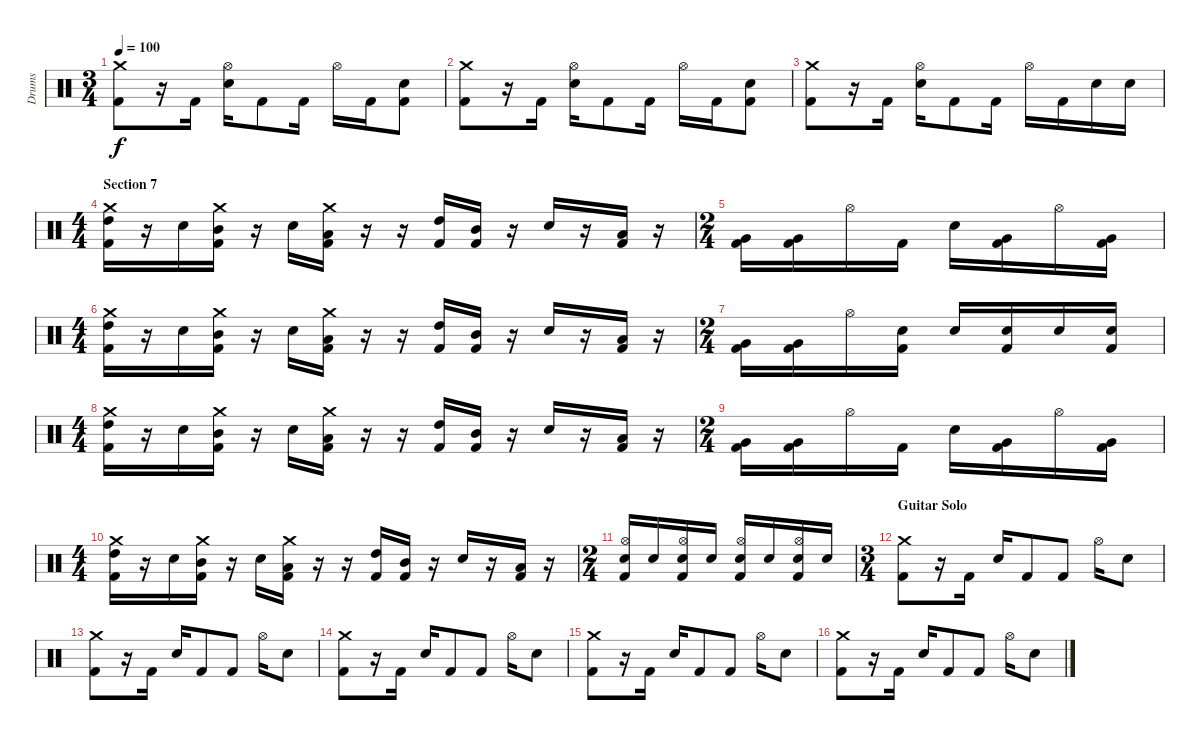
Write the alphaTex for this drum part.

\track ("Drums" "Drums") {instrument percussion}
\staff {score}
\articulation defaults
\ts (3 4)
\tempo 100
\clef neutral
\ks c
("Crash medium (hit)" "Kick (hit) 2").8{dy f} r.16 "Kick (hit) 2".16 ("Hi-Hat (open)" "Snare (hit) 2").16 "Kick (hit) 2".8 "Kick (hit) 2".16 "Hi-Hat (open)".16 "Kick (hit) 2".16 ("Snare (hit) 2" "Kick (hit) 2").8 |
("Crash medium (hit)" "Kick (hit) 2").8 r.16 "Kick (hit) 2".16 ("Hi-Hat (open)" "Snare (hit) 2").16 "Kick (hit) 2".8 "Kick (hit) 2".16 "Hi-Hat (open)".16 "Kick (hit) 2".16 ("Snare (hit) 2" "Kick (hit) 2").8 |
("Crash medium (hit)" "Kick (hit) 2").8 r.16 "Kick (hit) 2".16 ("Hi-Hat (open)" "Snare (hit) 2").16 "Kick (hit) 2".8 "Kick (hit) 2".16 "Hi-Hat (open)".16 "Kick (hit) 2".16 "Snare (hit) 2".16 "Snare (hit) 2".16 |
\ts (4 4)
\section ("" "Section 7")
("Crash medium (hit)" "High Tom (hit)" "Kick (hit) 2").16 r.16 "Snare (hit) 2".16 ("Crash medium (hit)" "Mid Tom (hit)" "Kick (hit) 2").16 r.16 "Snare (hit) 2".16 ("Crash medium (hit)" "Low Tom (hit)" "Kick (hit) 2").16 r.16 r.16 ("High Tom (hit)" "Kick (hit) 2").16 ("Mid Tom (hit)" "Kick (hit) 2").16 r.16 "Snare (hit) 2".16 r.16 ("Low Tom (hit)" "Kick (hit) 2").16 r.16 |
\ts (2 4)
("Very Low Tom (hit)" "Kick (hit) 2").16 ("Very Low Tom (hit)" "Kick (hit) 2").16 "Hi-Hat (open)".16 "Kick (hit) 2".16 "Snare (hit) 2".16 ("Very Low Tom (hit)" "Kick (hit) 2").16 "Hi-Hat (open)".16 ("Very Low Tom (hit)" "Kick (hit) 2").16 |
\ts (4 4)
("Crash medium (hit)" "High Tom (hit)" "Kick (hit) 2").16 r.16 "Snare (hit) 2".16 ("Crash medium (hit)" "Mid Tom (hit)" "Kick (hit) 2").16 r.16 "Snare (hit) 2".16 ("Crash medium (hit)" "Low Tom (hit)" "Kick (hit) 2").16 r.16 r.16 ("High Tom (hit)" "Kick (hit) 2").16 ("Mid Tom (hit)" "Kick (hit) 2").16 r.16 "Snare (hit) 2".16 r.16 ("Low Tom (hit)" "Kick (hit) 2").16 r.16 |
\ts (2 4)
("Very Low Tom (hit)" "Kick (hit) 2").16 ("Very Low Tom (hit)" "Kick (hit) 2").16 "Hi-Hat (open)".16 ("Snare (hit) 2" "Kick (hit) 2").16 "Snare (hit) 2".16 ("Snare (hit) 2" "Kick (hit) 2").16 "Snare (hit) 2".16 ("Snare (hit) 2" "Kick (hit) 2").16 |
\ts (4 4)
("Crash medium (hit)" "High Tom (hit)" "Kick (hit) 2").16 r.16 "Snare (hit) 2".16 ("Crash medium (hit)" "Mid Tom (hit)" "Kick (hit) 2").16 r.16 "Snare (hit) 2".16 ("Crash medium (hit)" "Low Tom (hit)" "Kick (hit) 2").16 r.16 r.16 ("High Tom (hit)" "Kick (hit) 2").16 ("Mid Tom (hit)" "Kick (hit) 2").16 r.16 "Snare (hit) 2".16 r.16 ("Low Tom (hit)" "Kick (hit) 2").16 r.16 |
\ts (2 4)
("Very Low Tom (hit)" "Kick (hit) 2").16 ("Very Low Tom (hit)" "Kick (hit) 2").16 "Hi-Hat (open)".16 "Kick (hit) 2".16 "Snare (hit) 2".16 ("Very Low Tom (hit)" "Kick (hit) 2").16 "Hi-Hat (open)".16 ("Very Low Tom (hit)" "Kick (hit) 2").16 |
\ts (4 4)
("Crash medium (hit)" "High Tom (hit)" "Kick (hit) 2").16 r.16 "Snare (hit) 2".16 ("Crash medium (hit)" "Mid Tom (hit)" "Kick (hit) 2").16 r.16 "Snare (hit) 2".16 ("Crash medium (hit)" "Low Tom (hit)" "Kick (hit) 2").16 r.16 r.16 ("High Tom (hit)" "Kick (hit) 2").16 ("Mid Tom (hit)" "Kick (hit) 2").16 r.16 "Snare (hit) 2".16 r.16 ("Low Tom (hit)" "Kick (hit) 2").16 r.16 |
\ts (2 4)
("Hi-Hat (open)" "Snare (hit) 2" "Kick (hit) 2").16 "Snare (hit) 2".16 ("Hi-Hat (open)" "Snare (hit) 2" "Kick (hit) 2").16 "Snare (hit) 2".16 ("Hi-Hat (open)" "Snare (hit) 2" "Kick (hit) 2").16 "Snare (hit) 2".16 ("Hi-Hat (open)" "Snare (hit) 2" "Kick (hit) 2").16 "Snare (hit) 2".16 |
\ts (3 4)
\section ("" "Guitar Solo")
("Crash medium (hit)" "Kick (hit) 2").8 r.16 "Kick (hit) 2".16 "Snare (hit) 2".16 "Kick (hit) 2".8 "Kick (hit) 2".8 "Hi-Hat (open)".16 "Snare (hit) 2".8 |
("Crash medium (hit)" "Kick (hit) 2").8 r.16 "Kick (hit) 2".16 "Snare (hit) 2".16 "Kick (hit) 2".8 "Kick (hit) 2".8 "Hi-Hat (open)".16 "Snare (hit) 2".8 |
("Crash medium (hit)" "Kick (hit) 2").8 r.16 "Kick (hit) 2".16 "Snare (hit) 2".16 "Kick (hit) 2".8 "Kick (hit) 2".8 "Hi-Hat (open)".16 "Snare (hit) 2".8 |
("Crash medium (hit)" "Kick (hit) 2").8 r.16 "Kick (hit) 2".16 "Snare (hit) 2".16 "Kick (hit) 2".8 "Kick (hit) 2".8 "Hi-Hat (open)".16 "Snare (hit) 2".8 |
("Crash medium (hit)" "Kick (hit) 2").8 r.16 "Kick (hit) 2".16 "Snare (hit) 2".16 "Kick (hit) 2".8 "Kick (hit) 2".8 "Hi-Hat (open)".16 "Snare (hit) 2".8
